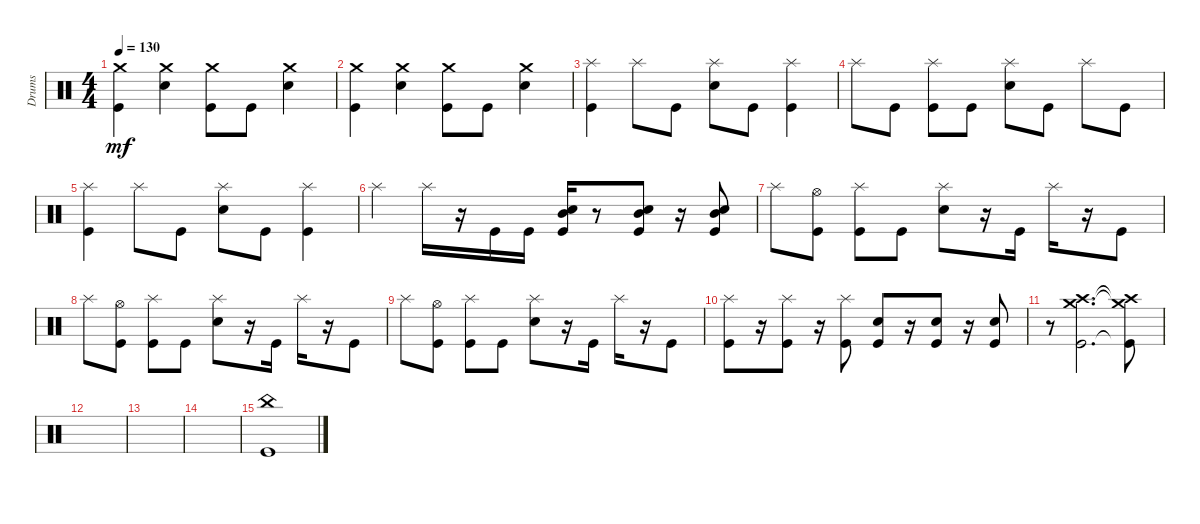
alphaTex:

\defaultSystemsLayout 4
\track ("Drumkit" "Drums") {instrument percussion}
\staff {score}
\articulation defaults
\ts (4 4)
\tempo 130
\clef neutral
\ks c
("Kick (hit)" "Crash medium (hit)").4{dy mf} ("Snare (hit) 2" "Crash medium (hit)").4 ("Kick (hit)" "Crash medium (hit)").8 "Kick (hit)".8 ("Snare (hit) 2" "Crash medium (hit)").4 |
("Kick (hit)" "Crash medium (hit)").4 ("Snare (hit) 2" "Crash medium (hit)").4 ("Kick (hit)" "Crash medium (hit)").8 "Kick (hit)".8 ("Snare (hit) 2" "Crash medium (hit)").4 |
("Kick (hit)" "Splash (hit)").4 "Splash (hit)".8 "Kick (hit)".8 ("Snare (hit) 2" "Splash (hit)").8 "Kick (hit)".8 ("Kick (hit)" "Splash (hit)").4 |
"Splash (hit)".8 "Kick (hit)".8 ("Kick (hit)" "Splash (hit)").8 "Kick (hit)".8 ("Splash (hit)" "Snare (hit) 2").8 "Kick (hit)".8 "Splash (hit)".8 "Kick (hit)".8 |
("Kick (hit)" "Splash (hit)").4 "Splash (hit)".8 "Kick (hit)".8 ("Snare (hit) 2" "Splash (hit)").8 "Kick (hit)".8 ("Kick (hit)" "Splash (hit)").4 |
"Splash (hit)".4 "Splash (hit)".16 r.16 "Kick (hit)".16 "Kick (hit)".16 ("Kick (hit)" "Mid Tom (hit)" "Snare (hit) 2").16 r.8 ("Snare (hit) 2" "Mid Tom (hit)" "Kick (hit)").8 r.16 ("Kick (hit)" "Mid Tom (hit)" "Snare (hit) 2").8 |
"Splash (hit)".8 ("Hi-Hat (open)" "Kick (hit)").8 ("Kick (hit)" "Splash (hit)").8 "Kick (hit)".8 ("Snare (hit) 2" "Splash (hit)").8 r.16 "Kick (hit)".16 "Splash (hit)".16 r.16 "Kick (hit)".8 |
"Splash (hit)".8 ("Hi-Hat (open)" "Kick (hit)").8 ("Kick (hit)" "Splash (hit)").8 "Kick (hit)".8 ("Snare (hit) 2" "Splash (hit)").8 r.16 "Kick (hit)".16 "Splash (hit)".16 r.16 "Kick (hit)".8 |
"Splash (hit)".8 ("Hi-Hat (open)" "Kick (hit)").8 ("Kick (hit)" "Splash (hit)").8 "Kick (hit)".8 ("Snare (hit) 2" "Splash (hit)").8 r.16 "Kick (hit)".16 "Splash (hit)".16 r.16 "Kick (hit)".8 |
("Kick (hit)" "Splash (hit)").8 r.16 ("Splash (hit)" "Kick (hit)").8 r.16 ("Kick (hit)" "Splash (hit)").8 ("Snare (hit) 2" "Kick (hit)").8 r.16 ("Kick (hit)" "Snare (hit) 2").8 r.16 ("Snare (hit) 2" "Kick (hit)").8 |
r.8 ("Kick (hit)" "Crash medium (hit)" "Crash high (hit)").2{d} ("Kick (hit)"{t} "Crash medium (hit)"{t} "Crash high (hit)"{t}).8 |
|
|
|
("Kick (hit)" "China (hit)").1
